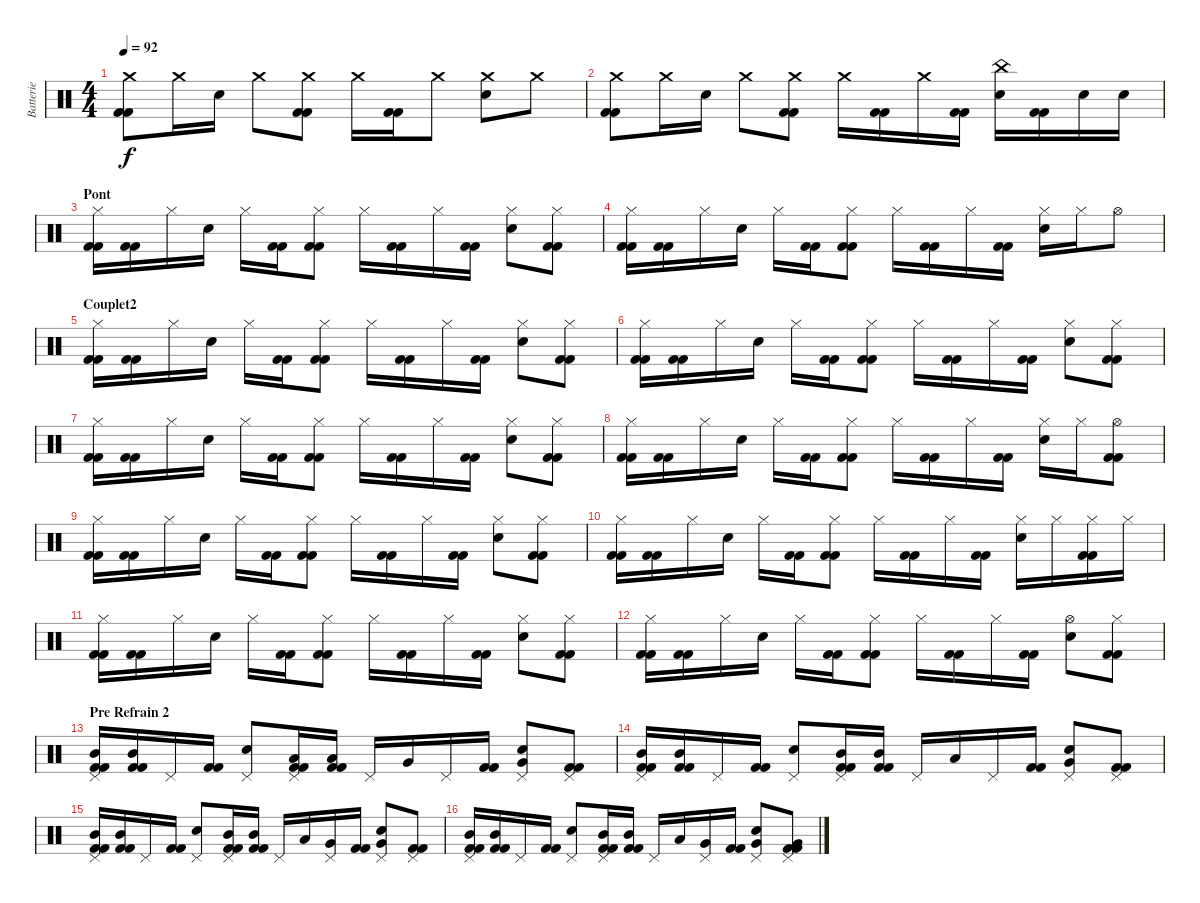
\track ("Batterie" "Batterie") {instrument percussion}
\staff {score}
\articulation defaults
\ts (4 4)
\tempo 92
\clef neutral
\ks c
("Kick (hit) 2" "Crash medium (hit)" "Kick (hit) 2").8{dy f} "Crash medium (hit)".16 "Electric Snare (hit)".16 "Crash medium (hit)".8 ("Kick (hit) 2" "Crash medium (hit)" "Kick (hit) 2").8 "Crash medium (hit)".16 ("Kick (hit) 2" "Kick (hit) 2").16 "Crash medium (hit)".8 ("Crash medium (hit)" "Electric Snare (hit)").8 "Crash medium (hit)".8 |
("Kick (hit) 2" "Crash medium (hit)" "Kick (hit) 2").8 "Crash medium (hit)".16 "Electric Snare (hit)".16 "Crash medium (hit)".8 ("Kick (hit) 2" "Crash medium (hit)" "Kick (hit) 2").8 "Crash medium (hit)".16 ("Kick (hit) 2" "Kick (hit) 2").16 "Crash medium (hit)".16 ("Kick (hit) 2" "Kick (hit) 2").16 ("China (hit)" "Electric Snare (hit)").16 ("Kick (hit) 2" "Kick (hit) 2").16 "Electric Snare (hit)".16 "Electric Snare (hit)".16 |
\section ("" "Pont")
("Kick (hit) 2" "Hi-Hat (closed)" "Kick (hit) 2").16 ("Kick (hit) 2" "Kick (hit) 2").16 "Hi-Hat (closed)".16 "Electric Snare (hit)".16 "Hi-Hat (closed)".16 ("Kick (hit) 2" "Kick (hit) 2").16 ("Kick (hit) 2" "Hi-Hat (closed)" "Kick (hit) 2").8 "Hi-Hat (closed)".16 ("Kick (hit) 2" "Kick (hit) 2").16 "Hi-Hat (closed)".16 ("Kick (hit) 2" "Kick (hit) 2").16 ("Hi-Hat (closed)" "Electric Snare (hit)").8 ("Kick (hit) 2" "Hi-Hat (closed)" "Kick (hit) 2").8 |
("Kick (hit) 2" "Hi-Hat (closed)" "Kick (hit) 2").16 ("Kick (hit) 2" "Kick (hit) 2").16 "Hi-Hat (closed)".16 "Electric Snare (hit)".16 "Hi-Hat (closed)".16 ("Kick (hit) 2" "Kick (hit) 2").16 ("Kick (hit) 2" "Hi-Hat (closed)" "Kick (hit) 2").8 "Hi-Hat (closed)".16 ("Kick (hit) 2" "Kick (hit) 2").16 "Hi-Hat (closed)".16 ("Kick (hit) 2" "Kick (hit) 2").16 ("Hi-Hat (closed)" "Electric Snare (hit)").16 "Hi-Hat (closed)".16 "Hi-Hat (open)".8 |
\section ("" "Couplet2")
("Kick (hit) 2" "Hi-Hat (closed)" "Kick (hit) 2").16 ("Kick (hit) 2" "Kick (hit) 2").16 "Hi-Hat (closed)".16 "Electric Snare (hit)".16 "Hi-Hat (closed)".16 ("Kick (hit) 2" "Kick (hit) 2").16 ("Kick (hit) 2" "Hi-Hat (closed)" "Kick (hit) 2").8 "Hi-Hat (closed)".16 ("Kick (hit) 2" "Kick (hit) 2").16 "Hi-Hat (closed)".16 ("Kick (hit) 2" "Kick (hit) 2").16 ("Hi-Hat (closed)" "Electric Snare (hit)").8 ("Kick (hit) 2" "Hi-Hat (closed)" "Kick (hit) 2").8 |
("Kick (hit) 2" "Hi-Hat (closed)" "Kick (hit) 2").16 ("Kick (hit) 2" "Kick (hit) 2").16 "Hi-Hat (closed)".16 "Electric Snare (hit)".16 "Hi-Hat (closed)".16 ("Kick (hit) 2" "Kick (hit) 2").16 ("Kick (hit) 2" "Hi-Hat (closed)" "Kick (hit) 2").8 "Hi-Hat (closed)".16 ("Kick (hit) 2" "Kick (hit) 2").16 "Hi-Hat (closed)".16 ("Kick (hit) 2" "Kick (hit) 2").16 ("Hi-Hat (closed)" "Electric Snare (hit)").8 ("Kick (hit) 2" "Hi-Hat (closed)" "Kick (hit) 2").8 |
("Kick (hit) 2" "Hi-Hat (closed)" "Kick (hit) 2").16 ("Kick (hit) 2" "Kick (hit) 2").16 "Hi-Hat (closed)".16 "Electric Snare (hit)".16 "Hi-Hat (closed)".16 ("Kick (hit) 2" "Kick (hit) 2").16 ("Kick (hit) 2" "Hi-Hat (closed)" "Kick (hit) 2").8 "Hi-Hat (closed)".16 ("Kick (hit) 2" "Kick (hit) 2").16 "Hi-Hat (closed)".16 ("Kick (hit) 2" "Kick (hit) 2").16 ("Hi-Hat (closed)" "Electric Snare (hit)").8 ("Kick (hit) 2" "Hi-Hat (closed)" "Kick (hit) 2").8 |
("Kick (hit) 2" "Hi-Hat (closed)" "Kick (hit) 2").16 ("Kick (hit) 2" "Kick (hit) 2").16 "Hi-Hat (closed)".16 "Electric Snare (hit)".16 "Hi-Hat (closed)".16 ("Kick (hit) 2" "Kick (hit) 2").16 ("Kick (hit) 2" "Hi-Hat (closed)" "Kick (hit) 2").8 "Hi-Hat (closed)".16 ("Kick (hit) 2" "Kick (hit) 2").16 "Hi-Hat (closed)".16 ("Kick (hit) 2" "Kick (hit) 2").16 ("Hi-Hat (closed)" "Electric Snare (hit)").16 "Hi-Hat (closed)".16 ("Kick (hit) 2" "Hi-Hat (open)" "Kick (hit) 2").8 |
("Kick (hit) 2" "Hi-Hat (closed)" "Kick (hit) 2").16 ("Kick (hit) 2" "Kick (hit) 2").16 "Hi-Hat (closed)".16 "Electric Snare (hit)".16 "Hi-Hat (closed)".16 ("Kick (hit) 2" "Kick (hit) 2").16 ("Kick (hit) 2" "Hi-Hat (closed)" "Kick (hit) 2").8 "Hi-Hat (closed)".16 ("Kick (hit) 2" "Kick (hit) 2").16 "Hi-Hat (closed)".16 ("Kick (hit) 2" "Kick (hit) 2").16 ("Hi-Hat (closed)" "Electric Snare (hit)").8 ("Kick (hit) 2" "Hi-Hat (closed)" "Kick (hit) 2").8 |
("Kick (hit) 2" "Hi-Hat (closed)" "Kick (hit) 2").16 ("Kick (hit) 2" "Kick (hit) 2").16 "Hi-Hat (closed)".16 "Electric Snare (hit)".16 "Hi-Hat (closed)".16 ("Kick (hit) 2" "Kick (hit) 2").16 ("Kick (hit) 2" "Hi-Hat (closed)" "Kick (hit) 2").8 "Hi-Hat (closed)".16 ("Kick (hit) 2" "Kick (hit) 2").16 "Hi-Hat (closed)".16 ("Kick (hit) 2" "Kick (hit) 2").16 ("Hi-Hat (closed)" "Electric Snare (hit)").16 "Hi-Hat (closed)".16 ("Kick (hit) 2" "Hi-Hat (closed)" "Kick (hit) 2").16 "Hi-Hat (closed)".16 |
("Kick (hit) 2" "Hi-Hat (closed)" "Kick (hit) 2").16 ("Kick (hit) 2" "Kick (hit) 2").16 "Hi-Hat (closed)".16 "Electric Snare (hit)".16 "Hi-Hat (closed)".16 ("Kick (hit) 2" "Kick (hit) 2").16 ("Kick (hit) 2" "Hi-Hat (closed)" "Kick (hit) 2").8 "Hi-Hat (closed)".16 ("Kick (hit) 2" "Kick (hit) 2").16 "Hi-Hat (closed)".16 ("Kick (hit) 2" "Kick (hit) 2").16 ("Hi-Hat (closed)" "Electric Snare (hit)").8 ("Kick (hit) 2" "Hi-Hat (closed)" "Kick (hit) 2").8 |
("Kick (hit) 2" "Hi-Hat (closed)" "Kick (hit) 2").16 ("Kick (hit) 2" "Kick (hit) 2").16 "Hi-Hat (closed)".16 "Electric Snare (hit)".16 "Hi-Hat (closed)".16 ("Kick (hit) 2" "Kick (hit) 2").16 ("Kick (hit) 2" "Hi-Hat (closed)" "Kick (hit) 2").8 "Hi-Hat (closed)".16 ("Kick (hit) 2" "Kick (hit) 2").16 "Hi-Hat (closed)".16 ("Kick (hit) 2" "Kick (hit) 2").16 ("Hi-Hat (open)" "Electric Snare (hit)").8 ("Kick (hit) 2" "Hi-Hat (closed)" "Kick (hit) 2").8 |
\section ("" "Pre Refrain 2")
("Kick (hit) 2" "Pedal Hi-Hat (hit)" "Mid Tom (hit)" "Kick (hit) 2").16 ("Kick (hit) 2" "Mid Tom (hit)" "Kick (hit) 2").16 "Pedal Hi-Hat (hit)".16 ("Kick (hit) 2" "Kick (hit) 2").16 ("Pedal Hi-Hat (hit)" "Electric Snare (hit)").8 ("Kick (hit) 2" "Pedal Hi-Hat (hit)" "Low Tom (hit)" "Kick (hit) 2").16 ("Kick (hit) 2" "Low Tom (hit)" "Kick (hit) 2").16 "Pedal Hi-Hat (hit)".16 "Very Low Tom (hit)".16 "Pedal Hi-Hat (hit)".16 ("Kick (hit) 2" "Kick (hit) 2").16 ("Pedal Hi-Hat (hit)" "Very Low Tom (hit)" "Electric Snare (hit)").8 ("Kick (hit) 2" "Pedal Hi-Hat (hit)" "Kick (hit) 2").8 |
("Kick (hit) 2" "Pedal Hi-Hat (hit)" "Mid Tom (hit)" "Kick (hit) 2").16 ("Kick (hit) 2" "Mid Tom (hit)" "Kick (hit) 2").16 "Pedal Hi-Hat (hit)".16 ("Kick (hit) 2" "Kick (hit) 2").16 ("Pedal Hi-Hat (hit)" "Electric Snare (hit)").8 ("Kick (hit) 2" "Pedal Hi-Hat (hit)" "Mid Tom (hit)" "Kick (hit) 2").16 ("Kick (hit) 2" "Mid Tom (hit)" "Kick (hit) 2").16 "Pedal Hi-Hat (hit)".16 "Low Tom (hit)".16 "Pedal Hi-Hat (hit)".16 ("Kick (hit) 2" "Kick (hit) 2").16 ("Pedal Hi-Hat (hit)" "Very Low Tom (hit)" "Electric Snare (hit)").8 ("Kick (hit) 2" "Pedal Hi-Hat (hit)" "Kick (hit) 2").8 |
("Kick (hit) 2" "Pedal Hi-Hat (hit)" "Mid Tom (hit)" "Kick (hit) 2").16 ("Kick (hit) 2" "Mid Tom (hit)" "Kick (hit) 2").16 "Pedal Hi-Hat (hit)".16 ("Kick (hit) 2" "Kick (hit) 2").16 ("Pedal Hi-Hat (hit)" "Electric Snare (hit)").8 ("Kick (hit) 2" "Pedal Hi-Hat (hit)" "Mid Tom (hit)" "Kick (hit) 2").16 ("Kick (hit) 2" "Mid Tom (hit)" "Kick (hit) 2").16 "Pedal Hi-Hat (hit)".16 "Low Tom (hit)".16 ("Pedal Hi-Hat (hit)" "Very Low Tom (hit)").16 ("Kick (hit) 2" "Kick (hit) 2").16 ("Pedal Hi-Hat (hit)" "Very Low Tom (hit)" "Electric Snare (hit)").8 ("Kick (hit) 2" "Pedal Hi-Hat (hit)" "Kick (hit) 2").8 |
("Kick (hit) 2" "Pedal Hi-Hat (hit)" "Mid Tom (hit)" "Kick (hit) 2").16 ("Kick (hit) 2" "Mid Tom (hit)" "Kick (hit) 2").16 "Pedal Hi-Hat (hit)".16 ("Kick (hit) 2" "Kick (hit) 2").16 ("Pedal Hi-Hat (hit)" "Electric Snare (hit)").8 ("Kick (hit) 2" "Pedal Hi-Hat (hit)" "Mid Tom (hit)" "Kick (hit) 2").16 ("Kick (hit) 2" "Mid Tom (hit)" "Kick (hit) 2").16 "Pedal Hi-Hat (hit)".16 "Low Tom (hit)".16 ("Pedal Hi-Hat (hit)" "Very Low Tom (hit)").16 ("Kick (hit) 2" "Kick (hit) 2").16 ("Pedal Hi-Hat (hit)" "Very Low Tom (hit)" "Electric Snare (hit)").8 ("Kick (hit) 2" "Pedal Hi-Hat (hit)" "Very Low Tom (hit)" "Kick (hit) 2").8
